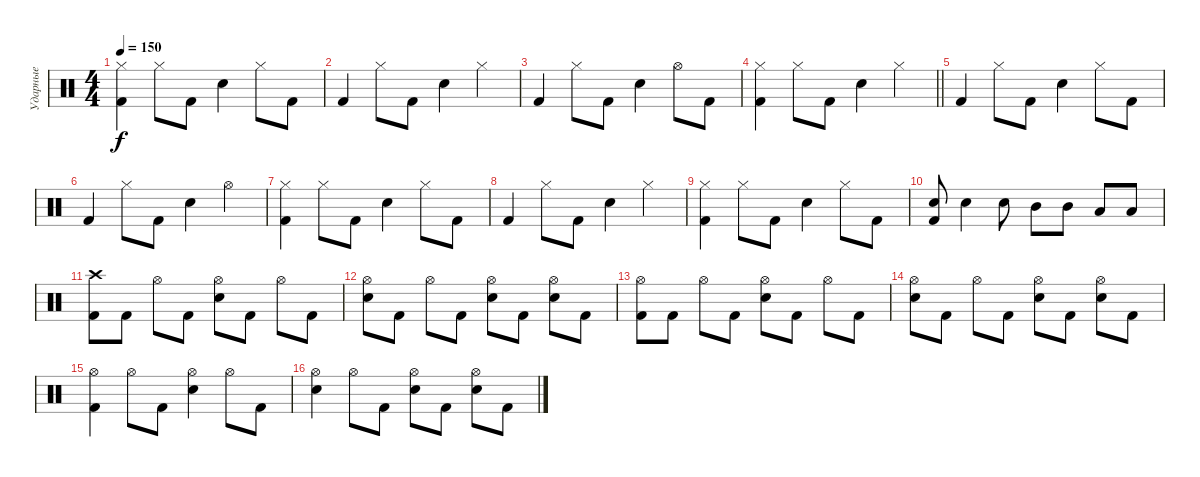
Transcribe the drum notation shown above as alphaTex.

\track ("Ударные" "Ударные") {instrument percussion}
\staff {score}
\articulation defaults
\ts (4 4)
\tempo 150
\clef neutral
\ks c
("Hi-Hat (closed)" "Kick (hit) 2").4{dy f} "Hi-Hat (closed)".8 "Kick (hit) 2".8 "Snare (hit) 2".4 "Hi-Hat (closed)".8 "Kick (hit) 2".8 |
"Kick (hit) 2".4 "Hi-Hat (closed)".8 "Kick (hit) 2".8 "Snare (hit) 2".4 "Hi-Hat (closed)".4 |
"Kick (hit) 2".4 "Hi-Hat (closed)".8 "Kick (hit) 2".8 "Snare (hit) 2".4 "Hi-Hat (open)".8 "Kick (hit) 2".8 |
\barLineRight lightlight
("Hi-Hat (closed)" "Kick (hit) 2").4 "Hi-Hat (closed)".8 "Kick (hit) 2".8 "Snare (hit) 2".4 "Hi-Hat (closed)".4 |
"Kick (hit) 2".4 "Hi-Hat (closed)".8 "Kick (hit) 2".8 "Snare (hit) 2".4 "Hi-Hat (closed)".8 "Kick (hit) 2".8 |
"Kick (hit) 2".4 "Hi-Hat (closed)".8 "Kick (hit) 2".8 "Snare (hit) 2".4 "Hi-Hat (open)".4 |
("Hi-Hat (closed)" "Kick (hit) 2").4 "Hi-Hat (closed)".8 "Kick (hit) 2".8 "Snare (hit) 2".4 "Hi-Hat (closed)".8 "Kick (hit) 2".8 |
"Kick (hit) 2".4 "Hi-Hat (closed)".8 "Kick (hit) 2".8 "Snare (hit) 2".4 "Hi-Hat (closed)".4 |
("Hi-Hat (closed)" "Kick (hit) 2").4 "Hi-Hat (closed)".8 "Kick (hit) 2".8 "Snare (hit) 2".4 "Hi-Hat (closed)".8 "Kick (hit) 2".8 |
("Snare (hit) 2" "Kick (hit) 2").8 "Snare (hit) 2".4 "Snare (hit) 2".8 "Mid Tom (hit)".8 "Mid Tom (hit)".8 "Low Tom (hit)".8 "Low Tom (hit)".8 |
("Crash high (hit)" "Kick (hit) 2").8 "Kick (hit) 2".8 "Hi-Hat (open)".8 "Kick (hit) 2".8 ("Hi-Hat (open)" "Snare (hit) 2").8 "Kick (hit) 2".8 "Hi-Hat (open)".8 "Kick (hit) 2".8 |
("Hi-Hat (open)" "Snare (hit) 2").8 "Kick (hit) 2".8 "Hi-Hat (open)".8 "Kick (hit) 2".8 ("Hi-Hat (open)" "Snare (hit) 2").8 "Kick (hit) 2".8 ("Hi-Hat (open)" "Snare (hit) 2").8 "Kick (hit) 2".8 |
("Hi-Hat (open)" "Kick (hit) 2").8 "Kick (hit) 2".8 "Hi-Hat (open)".8 "Kick (hit) 2".8 ("Hi-Hat (open)" "Snare (hit) 2").8 "Kick (hit) 2".8 "Hi-Hat (open)".8 "Kick (hit) 2".8 |
("Hi-Hat (open)" "Snare (hit) 2").8 "Kick (hit) 2".8 "Hi-Hat (open)".8 "Kick (hit) 2".8 ("Hi-Hat (open)" "Snare (hit) 2").8 "Kick (hit) 2".8 ("Hi-Hat (open)" "Snare (hit) 2").8 "Kick (hit) 2".8 |
("Hi-Hat (open)" "Kick (hit) 2").4 "Hi-Hat (open)".8 "Kick (hit) 2".8 ("Hi-Hat (open)" "Snare (hit) 2").4 "Hi-Hat (open)".8 "Kick (hit) 2".8 |
("Hi-Hat (open)" "Snare (hit) 2").4 "Hi-Hat (open)".8 "Kick (hit) 2".8 ("Hi-Hat (open)" "Snare (hit) 2").8 "Kick (hit) 2".8 ("Hi-Hat (open)" "Snare (hit) 2").8 "Kick (hit) 2".8
